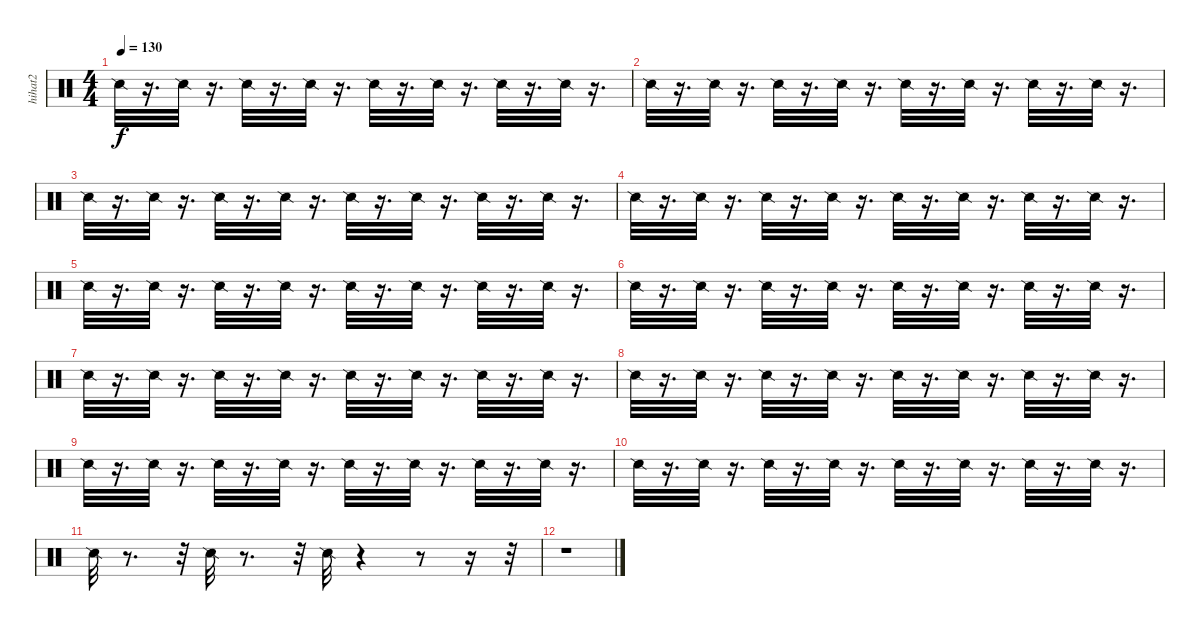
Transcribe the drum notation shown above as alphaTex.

\track ("hihat2              " "hihat2    ") {instrument percussion}
\staff {score}
\articulation defaults
\ts (4 4)
\tempo 130
\clef neutral
\ks c "Snare (side stick) 2".32{dy f}
r.16{d} "Snare (side stick) 2".32 r.16{d} "Snare (side stick) 2".32 r.16{d} "Snare (side stick) 2".32 r.16{d} "Snare (side stick) 2".32 r.16{d} "Snare (side stick) 2".32 r.16{d} "Snare (side stick) 2".32 r.16{d} "Snare (side stick) 2".32 r.16{d} |
"Snare (side stick) 2".32 r.16{d} "Snare (side stick) 2".32 r.16{d} "Snare (side stick) 2".32 r.16{d} "Snare (side stick) 2".32 r.16{d} "Snare (side stick) 2".32 r.16{d} "Snare (side stick) 2".32 r.16{d} "Snare (side stick) 2".32 r.16{d} "Snare (side stick) 2".32 r.16{d} |
"Snare (side stick) 2".32 r.16{d} "Snare (side stick) 2".32 r.16{d} "Snare (side stick) 2".32 r.16{d} "Snare (side stick) 2".32 r.16{d} "Snare (side stick) 2".32 r.16{d} "Snare (side stick) 2".32 r.16{d} "Snare (side stick) 2".32 r.16{d} "Snare (side stick) 2".32 r.16{d} |
"Snare (side stick) 2".32 r.16{d} "Snare (side stick) 2".32 r.16{d} "Snare (side stick) 2".32 r.16{d} "Snare (side stick) 2".32 r.16{d} "Snare (side stick) 2".32 r.16{d} "Snare (side stick) 2".32 r.16{d} "Snare (side stick) 2".32 r.16{d} "Snare (side stick) 2".32 r.16{d} |
"Snare (side stick) 2".32 r.16{d} "Snare (side stick) 2".32 r.16{d} "Snare (side stick) 2".32 r.16{d} "Snare (side stick) 2".32 r.16{d} "Snare (side stick) 2".32 r.16{d} "Snare (side stick) 2".32 r.16{d} "Snare (side stick) 2".32 r.16{d} "Snare (side stick) 2".32 r.16{d} |
"Snare (side stick) 2".32 r.16{d} "Snare (side stick) 2".32 r.16{d} "Snare (side stick) 2".32 r.16{d} "Snare (side stick) 2".32 r.16{d} "Snare (side stick) 2".32 r.16{d} "Snare (side stick) 2".32 r.16{d} "Snare (side stick) 2".32 r.16{d} "Snare (side stick) 2".32 r.16{d} |
"Snare (side stick) 2".32 r.16{d} "Snare (side stick) 2".32 r.16{d} "Snare (side stick) 2".32 r.16{d} "Snare (side stick) 2".32 r.16{d} "Snare (side stick) 2".32 r.16{d} "Snare (side stick) 2".32 r.16{d} "Snare (side stick) 2".32 r.16{d} "Snare (side stick) 2".32 r.16{d} |
"Snare (side stick) 2".32 r.16{d} "Snare (side stick) 2".32 r.16{d} "Snare (side stick) 2".32 r.16{d} "Snare (side stick) 2".32 r.16{d} "Snare (side stick) 2".32 r.16{d} "Snare (side stick) 2".32 r.16{d} "Snare (side stick) 2".32 r.16{d} "Snare (side stick) 2".32 r.16{d} |
"Snare (side stick) 2".32 r.16{d} "Snare (side stick) 2".32 r.16{d} "Snare (side stick) 2".32 r.16{d} "Snare (side stick) 2".32 r.16{d} "Snare (side stick) 2".32 r.16{d} "Snare (side stick) 2".32 r.16{d} "Snare (side stick) 2".32 r.16{d} "Snare (side stick) 2".32 r.16{d} |
"Snare (side stick) 2".32 r.16{d} "Snare (side stick) 2".32 r.16{d} "Snare (side stick) 2".32 r.16{d} "Snare (side stick) 2".32 r.16{d} "Snare (side stick) 2".32 r.16{d} "Snare (side stick) 2".32 r.16{d} "Snare (side stick) 2".32 r.16{d} "Snare (side stick) 2".32 r.16{d} |
"Snare (side stick) 2".32 r.8{d} r.32 "Snare (side stick) 2".32 r.8{d} r.32 "Snare (side stick) 2".32 r.4 r.8 r.16 r.32 |
r.1
